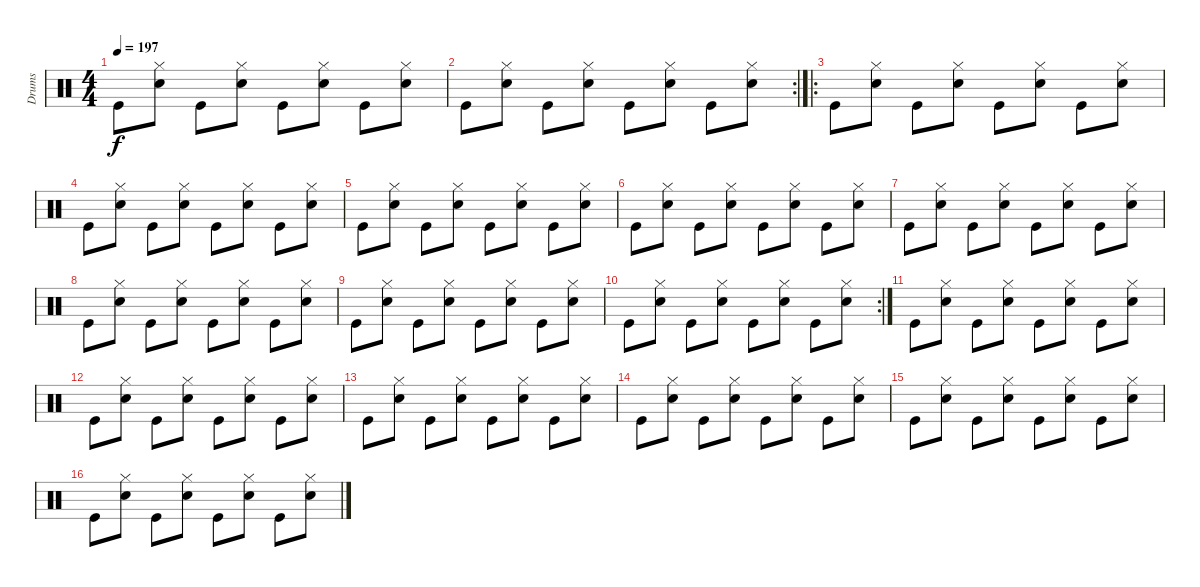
\track ("Drums" "Drums") {instrument percussion}
\staff {score}
\articulation defaults
\ts (4 4)
\tempo 197
\clef neutral
\ks c "Kick (hit)".8{dy f}
("Hi-Hat (closed)" "Snare (hit) 2").8 "Kick (hit)".8 ("Hi-Hat (closed)" "Snare (hit) 2").8 "Kick (hit)".8 ("Hi-Hat (closed)" "Snare (hit) 2").8 "Kick (hit)".8 ("Hi-Hat (closed)" "Snare (hit) 2").8 |
\rc 2 "Kick (hit)".8
("Hi-Hat (closed)" "Snare (hit) 2").8 "Kick (hit)".8 ("Hi-Hat (closed)" "Snare (hit) 2").8 "Kick (hit)".8 ("Hi-Hat (closed)" "Snare (hit) 2").8 "Kick (hit)".8 ("Hi-Hat (closed)" "Snare (hit) 2").8 |
\ro "Kick (hit)".8
("Hi-Hat (closed)" "Snare (hit) 2").8 "Kick (hit)".8 ("Hi-Hat (closed)" "Snare (hit) 2").8 "Kick (hit)".8 ("Hi-Hat (closed)" "Snare (hit) 2").8 "Kick (hit)".8 ("Hi-Hat (closed)" "Snare (hit) 2").8 |
"Kick (hit)".8 ("Hi-Hat (closed)" "Snare (hit) 2").8 "Kick (hit)".8 ("Hi-Hat (closed)" "Snare (hit) 2").8 "Kick (hit)".8 ("Hi-Hat (closed)" "Snare (hit) 2").8 "Kick (hit)".8 ("Hi-Hat (closed)" "Snare (hit) 2").8 |
"Kick (hit)".8 ("Hi-Hat (closed)" "Snare (hit) 2").8 "Kick (hit)".8 ("Hi-Hat (closed)" "Snare (hit) 2").8 "Kick (hit)".8 ("Hi-Hat (closed)" "Snare (hit) 2").8 "Kick (hit)".8 ("Hi-Hat (closed)" "Snare (hit) 2").8 |
"Kick (hit)".8 ("Hi-Hat (closed)" "Snare (hit) 2").8 "Kick (hit)".8 ("Hi-Hat (closed)" "Snare (hit) 2").8 "Kick (hit)".8 ("Hi-Hat (closed)" "Snare (hit) 2").8 "Kick (hit)".8 ("Hi-Hat (closed)" "Snare (hit) 2").8 |
"Kick (hit)".8 ("Hi-Hat (closed)" "Snare (hit) 2").8 "Kick (hit)".8 ("Hi-Hat (closed)" "Snare (hit) 2").8 "Kick (hit)".8 ("Hi-Hat (closed)" "Snare (hit) 2").8 "Kick (hit)".8 ("Hi-Hat (closed)" "Snare (hit) 2").8 |
"Kick (hit)".8 ("Hi-Hat (closed)" "Snare (hit) 2").8 "Kick (hit)".8 ("Hi-Hat (closed)" "Snare (hit) 2").8 "Kick (hit)".8 ("Hi-Hat (closed)" "Snare (hit) 2").8 "Kick (hit)".8 ("Hi-Hat (closed)" "Snare (hit) 2").8 |
"Kick (hit)".8 ("Hi-Hat (closed)" "Snare (hit) 2").8 "Kick (hit)".8 ("Hi-Hat (closed)" "Snare (hit) 2").8 "Kick (hit)".8 ("Hi-Hat (closed)" "Snare (hit) 2").8 "Kick (hit)".8 ("Hi-Hat (closed)" "Snare (hit) 2").8 |
\rc 2 "Kick (hit)".8
("Hi-Hat (closed)" "Snare (hit) 2").8 "Kick (hit)".8 ("Hi-Hat (closed)" "Snare (hit) 2").8 "Kick (hit)".8 ("Hi-Hat (closed)" "Snare (hit) 2").8 "Kick (hit)".8 ("Hi-Hat (closed)" "Snare (hit) 2").8 |
"Kick (hit)".8 ("Hi-Hat (closed)" "Snare (hit) 2").8 "Kick (hit)".8 ("Hi-Hat (closed)" "Snare (hit) 2").8 "Kick (hit)".8 ("Hi-Hat (closed)" "Snare (hit) 2").8 "Kick (hit)".8 ("Hi-Hat (closed)" "Snare (hit) 2").8 |
"Kick (hit)".8 ("Hi-Hat (closed)" "Snare (hit) 2").8 "Kick (hit)".8 ("Hi-Hat (closed)" "Snare (hit) 2").8 "Kick (hit)".8 ("Hi-Hat (closed)" "Snare (hit) 2").8 "Kick (hit)".8 ("Hi-Hat (closed)" "Snare (hit) 2").8 |
"Kick (hit)".8 ("Hi-Hat (closed)" "Snare (hit) 2").8 "Kick (hit)".8 ("Hi-Hat (closed)" "Snare (hit) 2").8 "Kick (hit)".8 ("Hi-Hat (closed)" "Snare (hit) 2").8 "Kick (hit)".8 ("Hi-Hat (closed)" "Snare (hit) 2").8 |
"Kick (hit)".8 ("Hi-Hat (closed)" "Snare (hit) 2").8 "Kick (hit)".8 ("Hi-Hat (closed)" "Snare (hit) 2").8 "Kick (hit)".8 ("Hi-Hat (closed)" "Snare (hit) 2").8 "Kick (hit)".8 ("Hi-Hat (closed)" "Snare (hit) 2").8 |
"Kick (hit)".8 ("Hi-Hat (closed)" "Snare (hit) 2").8 "Kick (hit)".8 ("Hi-Hat (closed)" "Snare (hit) 2").8 "Kick (hit)".8 ("Hi-Hat (closed)" "Snare (hit) 2").8 "Kick (hit)".8 ("Hi-Hat (closed)" "Snare (hit) 2").8 |
"Kick (hit)".8 ("Hi-Hat (closed)" "Snare (hit) 2").8 "Kick (hit)".8 ("Hi-Hat (closed)" "Snare (hit) 2").8 "Kick (hit)".8 ("Hi-Hat (closed)" "Snare (hit) 2").8 "Kick (hit)".8 ("Hi-Hat (closed)" "Snare (hit) 2").8
